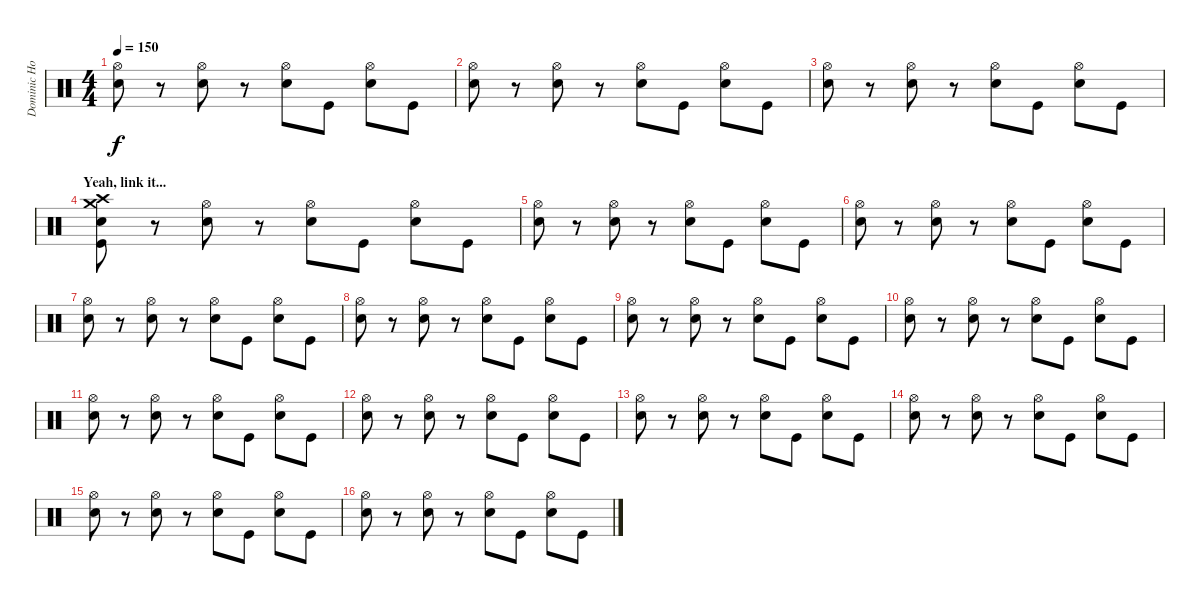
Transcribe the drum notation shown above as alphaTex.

\track ("Dominic Howard" "Dominic Ho") {instrument percussion}
\staff {score}
\articulation defaults
\ts (4 4)
\tempo 150
\clef neutral
\ks c
("Hi-Hat (open)" "Snare (hit) 2").8{dy f} r.8 ("Hi-Hat (open)" "Snare (hit) 2").8 r.8 ("Hi-Hat (open)" "Snare (hit) 2").8 "Kick (hit)".8 ("Hi-Hat (open)" "Snare (hit) 2").8 "Kick (hit)".8 |
("Hi-Hat (open)" "Snare (hit) 2").8 r.8 ("Hi-Hat (open)" "Snare (hit) 2").8 r.8 ("Hi-Hat (open)" "Snare (hit) 2").8 "Kick (hit)".8 ("Hi-Hat (open)" "Snare (hit) 2").8 "Kick (hit)".8 |
("Hi-Hat (open)" "Snare (hit) 2").8 r.8 ("Hi-Hat (open)" "Snare (hit) 2").8 r.8 ("Hi-Hat (open)" "Snare (hit) 2").8 "Kick (hit)".8 ("Hi-Hat (open)" "Snare (hit) 2").8 "Kick (hit)".8 |
\section ("" "Yeah, link it...")
("Crash medium (hit)" "Snare (hit) 2" "Crash high (hit)" "Kick (hit)").8 r.8 ("Hi-Hat (open)" "Snare (hit) 2").8 r.8 ("Hi-Hat (open)" "Snare (hit) 2").8 "Kick (hit)".8 ("Hi-Hat (open)" "Snare (hit) 2").8 "Kick (hit)".8 |
("Hi-Hat (open)" "Snare (hit) 2").8 r.8 ("Hi-Hat (open)" "Snare (hit) 2").8 r.8 ("Hi-Hat (open)" "Snare (hit) 2").8 "Kick (hit)".8 ("Hi-Hat (open)" "Snare (hit) 2").8 "Kick (hit)".8 |
("Hi-Hat (open)" "Snare (hit) 2").8 r.8 ("Hi-Hat (open)" "Snare (hit) 2").8 r.8 ("Hi-Hat (open)" "Snare (hit) 2").8 "Kick (hit)".8 ("Hi-Hat (open)" "Snare (hit) 2").8 "Kick (hit)".8 |
("Hi-Hat (open)" "Snare (hit) 2").8 r.8 ("Hi-Hat (open)" "Snare (hit) 2").8 r.8 ("Hi-Hat (open)" "Snare (hit) 2").8 "Kick (hit)".8 ("Hi-Hat (open)" "Snare (hit) 2").8 "Kick (hit)".8 |
("Hi-Hat (open)" "Snare (hit) 2").8 r.8 ("Hi-Hat (open)" "Snare (hit) 2").8 r.8 ("Hi-Hat (open)" "Snare (hit) 2").8 "Kick (hit)".8 ("Hi-Hat (open)" "Snare (hit) 2").8 "Kick (hit)".8 |
("Hi-Hat (open)" "Snare (hit) 2").8 r.8 ("Hi-Hat (open)" "Snare (hit) 2").8 r.8 ("Hi-Hat (open)" "Snare (hit) 2").8 "Kick (hit)".8 ("Hi-Hat (open)" "Snare (hit) 2").8 "Kick (hit)".8 |
("Hi-Hat (open)" "Snare (hit) 2").8 r.8 ("Hi-Hat (open)" "Snare (hit) 2").8 r.8 ("Hi-Hat (open)" "Snare (hit) 2").8 "Kick (hit)".8 ("Hi-Hat (open)" "Snare (hit) 2").8 "Kick (hit)".8 |
("Hi-Hat (open)" "Snare (hit) 2").8 r.8 ("Hi-Hat (open)" "Snare (hit) 2").8 r.8 ("Hi-Hat (open)" "Snare (hit) 2").8 "Kick (hit)".8 ("Hi-Hat (open)" "Snare (hit) 2").8 "Kick (hit)".8 |
("Hi-Hat (open)" "Snare (hit) 2").8 r.8 ("Hi-Hat (open)" "Snare (hit) 2").8 r.8 ("Hi-Hat (open)" "Snare (hit) 2").8 "Kick (hit)".8 ("Hi-Hat (open)" "Snare (hit) 2").8 "Kick (hit)".8 |
("Hi-Hat (open)" "Snare (hit) 2").8 r.8 ("Hi-Hat (open)" "Snare (hit) 2").8 r.8 ("Hi-Hat (open)" "Snare (hit) 2").8 "Kick (hit)".8 ("Hi-Hat (open)" "Snare (hit) 2").8 "Kick (hit)".8 |
("Hi-Hat (open)" "Snare (hit) 2").8 r.8 ("Hi-Hat (open)" "Snare (hit) 2").8 r.8 ("Hi-Hat (open)" "Snare (hit) 2").8 "Kick (hit)".8 ("Hi-Hat (open)" "Snare (hit) 2").8 "Kick (hit)".8 |
("Hi-Hat (open)" "Snare (hit) 2").8 r.8 ("Hi-Hat (open)" "Snare (hit) 2").8 r.8 ("Hi-Hat (open)" "Snare (hit) 2").8 "Kick (hit)".8 ("Hi-Hat (open)" "Snare (hit) 2").8 "Kick (hit)".8 |
("Hi-Hat (open)" "Snare (hit) 2").8 r.8 ("Hi-Hat (open)" "Snare (hit) 2").8 r.8 ("Hi-Hat (open)" "Snare (hit) 2").8 "Kick (hit)".8 ("Hi-Hat (open)" "Snare (hit) 2").8 "Kick (hit)".8
